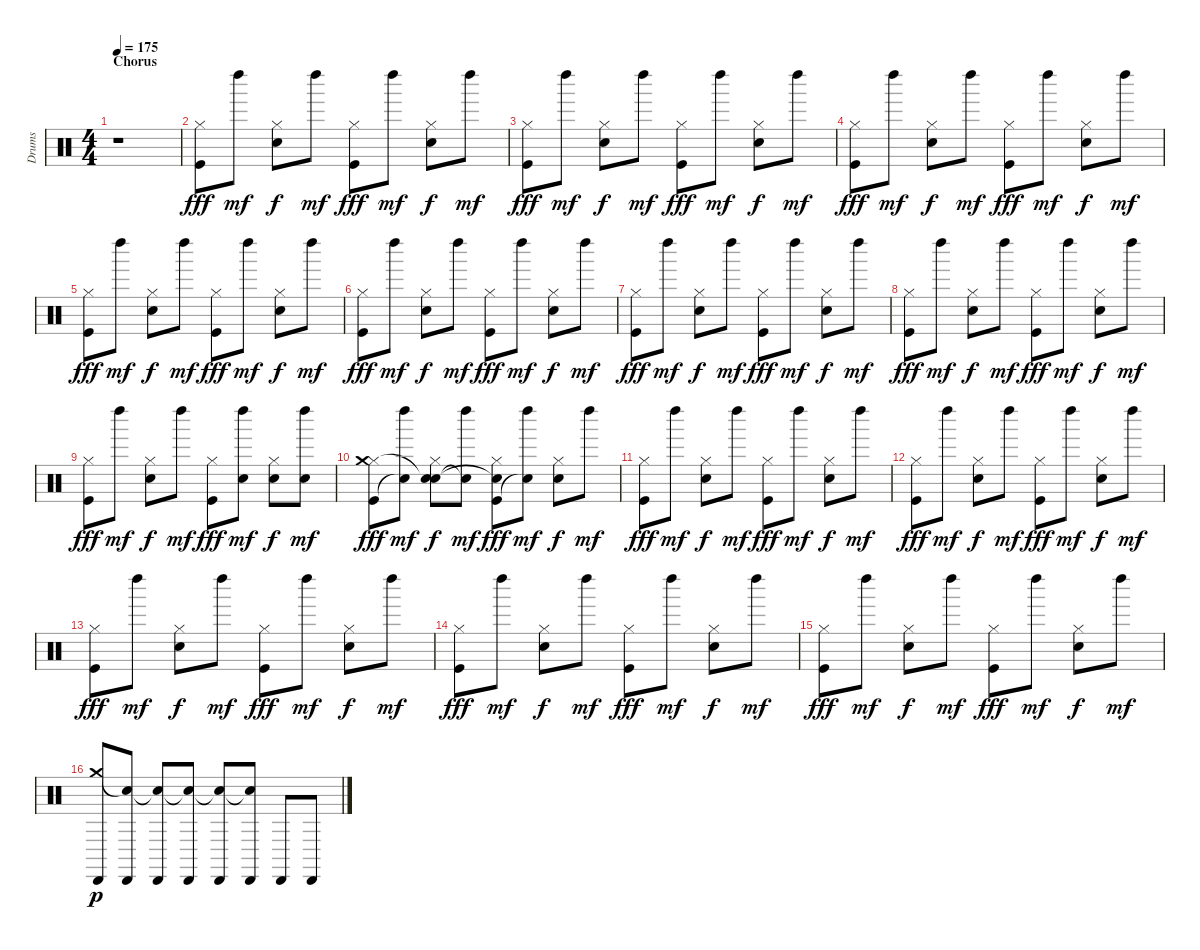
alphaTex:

\track ("Drums" "Drums") {instrument percussion}
\staff {score}
\articulation defaults
\ts (4 4)
\section ("" "Chorus")
\tempo 175
\clef neutral
\ks c
r.1{dy fff} |
("Hi-Hat (closed)" "Kick (hit)").8 "Left Maraca (hit)".8{dy mf} ("Hi-Hat (closed)" "Snare (hit) 2").8{dy f} "Left Maraca (hit)".8{dy mf} ("Hi-Hat (closed)" "Kick (hit)").8{dy fff} "Left Maraca (hit)".8{dy mf} ("Hi-Hat (closed)" "Snare (hit) 2").8{dy f} "Left Maraca (hit)".8{dy mf} |
("Hi-Hat (closed)" "Kick (hit)").8{dy fff} "Left Maraca (hit)".8{dy mf} ("Hi-Hat (closed)" "Snare (hit) 2").8{dy f} "Left Maraca (hit)".8{dy mf} ("Hi-Hat (closed)" "Kick (hit)").8{dy fff} "Left Maraca (hit)".8{dy mf} ("Hi-Hat (closed)" "Snare (hit) 2").8{dy f} "Left Maraca (hit)".8{dy mf} |
("Hi-Hat (closed)" "Kick (hit)").8{dy fff} "Left Maraca (hit)".8{dy mf} ("Hi-Hat (closed)" "Snare (hit) 2").8{dy f} "Left Maraca (hit)".8{dy mf} ("Hi-Hat (closed)" "Kick (hit)").8{dy fff} "Left Maraca (hit)".8{dy mf} ("Hi-Hat (closed)" "Snare (hit) 2").8{dy f} "Left Maraca (hit)".8{dy mf} |
("Hi-Hat (closed)" "Kick (hit)").8{dy fff} "Left Maraca (hit)".8{dy mf} ("Hi-Hat (closed)" "Snare (hit) 2").8{dy f} "Left Maraca (hit)".8{dy mf} ("Hi-Hat (closed)" "Kick (hit)").8{dy fff} "Left Maraca (hit)".8{dy mf} ("Hi-Hat (closed)" "Snare (hit) 2").8{dy f} "Left Maraca (hit)".8{dy mf} |
("Hi-Hat (closed)" "Kick (hit)").8{dy fff} "Left Maraca (hit)".8{dy mf} ("Hi-Hat (closed)" "Snare (hit) 2").8{dy f} "Left Maraca (hit)".8{dy mf} ("Hi-Hat (closed)" "Kick (hit)").8{dy fff} "Left Maraca (hit)".8{dy mf} ("Hi-Hat (closed)" "Snare (hit) 2").8{dy f} "Left Maraca (hit)".8{dy mf} |
("Hi-Hat (closed)" "Kick (hit)").8{dy fff} "Left Maraca (hit)".8{dy mf} ("Hi-Hat (closed)" "Snare (hit) 2").8{dy f} "Left Maraca (hit)".8{dy mf} ("Hi-Hat (closed)" "Kick (hit)").8{dy fff} "Left Maraca (hit)".8{dy mf} ("Hi-Hat (closed)" "Snare (hit) 2").8{dy f} "Left Maraca (hit)".8{dy mf} |
("Hi-Hat (closed)" "Kick (hit)").8{dy fff} "Left Maraca (hit)".8{dy mf} ("Hi-Hat (closed)" "Snare (hit) 2").8{dy f} "Left Maraca (hit)".8{dy mf} ("Hi-Hat (closed)" "Kick (hit)").8{dy fff} "Left Maraca (hit)".8{dy mf} ("Hi-Hat (closed)" "Snare (hit) 2").8{dy f} "Left Maraca (hit)".8{dy mf} |
("Hi-Hat (closed)" "Kick (hit)").8{dy fff} "Left Maraca (hit)".8{dy mf} ("Hi-Hat (closed)" "Snare (hit) 2").8{dy f} "Left Maraca (hit)".8{dy mf} ("Hi-Hat (closed)" "Kick (hit)").8{dy fff} ("Left Maraca (hit)" "Snare (hit) 2").8{dy mf} ("Hi-Hat (closed)" "Snare (hit) 2").8{dy f} ("Left Maraca (hit)" "Snare (hit) 2").8{dy mf} |
("Hi-Hat (closed)" "Kick (hit)" "Crash medium (hit)").8{dy fff} ("Left Maraca (hit)" "Snare (hit)"{t}).8{dy mf} ("Hi-Hat (closed)" "Snare (hit) 2" "Snare (hit)"{t}).8{dy f} ("Left Maraca (hit)" "Snare (hit)"{t}).8{dy mf} ("Hi-Hat (closed)" "Kick (hit)" "Snare (hit)"{t}).8{dy fff} ("Left Maraca (hit)" "Snare (hit)"{t}).8{dy mf} ("Hi-Hat (closed)" "Snare (hit) 2").8{dy f} "Left Maraca (hit)".8{dy mf} |
("Hi-Hat (closed)" "Kick (hit)").8{dy fff} "Left Maraca (hit)".8{dy mf} ("Hi-Hat (closed)" "Snare (hit) 2").8{dy f} "Left Maraca (hit)".8{dy mf} ("Hi-Hat (closed)" "Kick (hit)").8{dy fff} "Left Maraca (hit)".8{dy mf} ("Hi-Hat (closed)" "Snare (hit) 2").8{dy f} "Left Maraca (hit)".8{dy mf} |
("Hi-Hat (closed)" "Kick (hit)").8{dy fff} "Left Maraca (hit)".8{dy mf} ("Hi-Hat (closed)" "Snare (hit) 2").8{dy f} "Left Maraca (hit)".8{dy mf} ("Hi-Hat (closed)" "Kick (hit)").8{dy fff} "Left Maraca (hit)".8{dy mf} ("Hi-Hat (closed)" "Snare (hit) 2").8{dy f} "Left Maraca (hit)".8{dy mf} |
("Hi-Hat (closed)" "Kick (hit)").8{dy fff} "Left Maraca (hit)".8{dy mf} ("Hi-Hat (closed)" "Snare (hit) 2").8{dy f} "Left Maraca (hit)".8{dy mf} ("Hi-Hat (closed)" "Kick (hit)").8{dy fff} "Left Maraca (hit)".8{dy mf} ("Hi-Hat (closed)" "Snare (hit) 2").8{dy f} "Left Maraca (hit)".8{dy mf} |
("Hi-Hat (closed)" "Kick (hit)").8{dy fff} "Left Maraca (hit)".8{dy mf} ("Hi-Hat (closed)" "Snare (hit) 2").8{dy f} "Left Maraca (hit)".8{dy mf} ("Hi-Hat (closed)" "Kick (hit)").8{dy fff} "Left Maraca (hit)".8{dy mf} ("Hi-Hat (closed)" "Snare (hit) 2").8{dy f} "Left Maraca (hit)".8{dy mf} |
("Hi-Hat (closed)" "Kick (hit)").8{dy fff} "Left Maraca (hit)".8{dy mf} ("Hi-Hat (closed)" "Snare (hit) 2").8{dy f} "Left Maraca (hit)".8{dy mf} ("Hi-Hat (closed)" "Kick (hit)").8{dy fff} "Left Maraca (hit)".8{dy mf} ("Hi-Hat (closed)" "Snare (hit) 2").8{dy f} "Left Maraca (hit)".8{dy mf} |
("Cabasa (hit)" "Crash medium (hit)").8{dy p} ("Cabasa (hit)" "Snare (hit)"{t}).8 ("Cabasa (hit)" "Snare (hit)"{t}).8 ("Cabasa (hit)" "Snare (hit)"{t}).8 ("Cabasa (hit)" "Snare (hit)"{t}).8 ("Cabasa (hit)" "Snare (hit)"{t}).8 "Cabasa (hit)".8 "Cabasa (hit)".8
